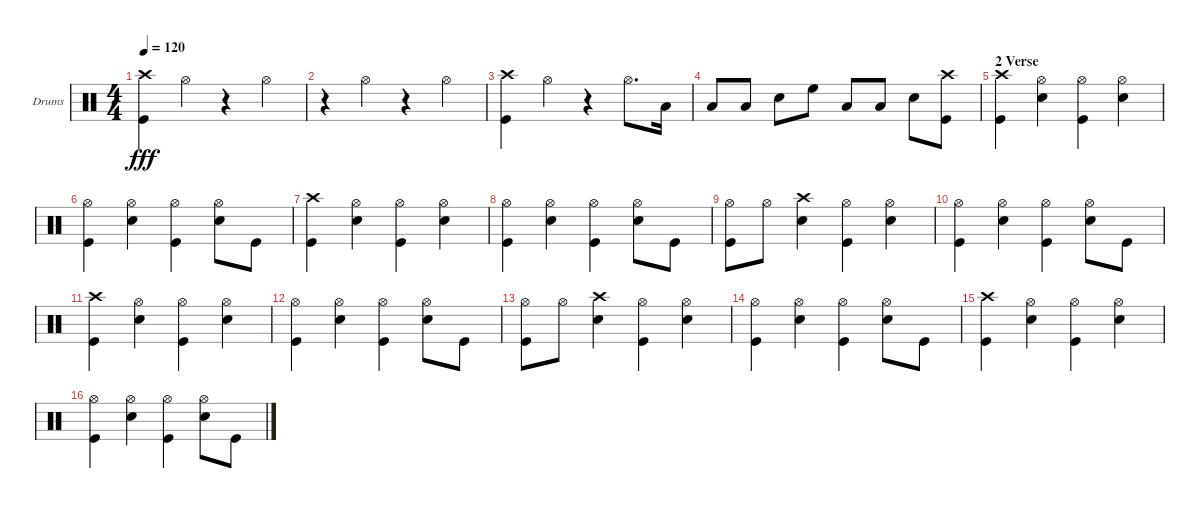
\bracketExtendMode groupsimilarinstruments
\firstSystemTrackNameOrientation horizontal
\otherSystemsTrackNameOrientation horizontal
\track ("Drumkit" "Drums") {instrument percussion}
\staff {score}
\articulation defaults
\ts (4 4)
\tempo 120
\clef neutral
\ks c
("Kick (hit)" "Crash high (hit)").4{dy fff} "Hi-Hat (open)".4 r.4 "Hi-Hat (open)".4 |
r.4 "Hi-Hat (open)".4 r.4 "Hi-Hat (open)".4 |
("Crash high (hit)" "Kick (hit)").4 "Hi-Hat (open)".4 r.4 "Hi-Hat (open)".8{d} "Low Tom (hit)".16 |
"Low Tom (hit)".8 "Low Tom (hit)".8 "Snare (hit) 2".8 "High Floor Tom (hit)".8 "Low Tom (hit)".8 "Low Tom (hit)".8 "Snare (hit) 2".8 ("Crash high (hit)" "Kick (hit)").8 |
\section ("" "2 Verse")
("Kick (hit)" "Crash high (hit)").4 ("Hi-Hat (open)" "Snare (hit) 2").4 ("Kick (hit)" "Hi-Hat (open)").4 ("Hi-Hat (open)" "Snare (hit) 2").4 |
("Hi-Hat (open)" "Kick (hit)").4 ("Hi-Hat (open)" "Snare (hit) 2").4 ("Hi-Hat (open)" "Kick (hit)").4 ("Snare (hit) 2" "Hi-Hat (open)").8 "Kick (hit)".8 |
("Kick (hit)" "Crash high (hit)").4 ("Hi-Hat (open)" "Snare (hit) 2").4 ("Kick (hit)" "Hi-Hat (open)").4 ("Hi-Hat (open)" "Snare (hit) 2").4 |
("Hi-Hat (open)" "Kick (hit)").4 ("Hi-Hat (open)" "Snare (hit) 2").4 ("Hi-Hat (open)" "Kick (hit)").4 ("Snare (hit) 2" "Hi-Hat (open)").8 "Kick (hit)".8 |
("Kick (hit)" "Hi-Hat (open)").8 "Hi-Hat (open)".8 ("Crash high (hit)" "Snare (hit) 2").4 ("Hi-Hat (open)" "Kick (hit)").4 ("Snare (hit) 2" "Hi-Hat (open)").4 |
("Hi-Hat (open)" "Kick (hit)").4 ("Hi-Hat (open)" "Snare (hit) 2").4 ("Hi-Hat (open)" "Kick (hit)").4 ("Snare (hit) 2" "Hi-Hat (open)").8 "Kick (hit)".8 |
("Kick (hit)" "Crash high (hit)").4 ("Hi-Hat (open)" "Snare (hit) 2").4 ("Kick (hit)" "Hi-Hat (open)").4 ("Hi-Hat (open)" "Snare (hit) 2").4 |
("Hi-Hat (open)" "Kick (hit)").4 ("Hi-Hat (open)" "Snare (hit) 2").4 ("Hi-Hat (open)" "Kick (hit)").4 ("Snare (hit) 2" "Hi-Hat (open)").8 "Kick (hit)".8 |
("Kick (hit)" "Hi-Hat (open)").8 "Hi-Hat (open)".8 ("Crash high (hit)" "Snare (hit) 2").4 ("Hi-Hat (open)" "Kick (hit)").4 ("Snare (hit) 2" "Hi-Hat (open)").4 |
("Hi-Hat (open)" "Kick (hit)").4 ("Hi-Hat (open)" "Snare (hit) 2").4 ("Hi-Hat (open)" "Kick (hit)").4 ("Snare (hit) 2" "Hi-Hat (open)").8 "Kick (hit)".8 |
("Kick (hit)" "Crash high (hit)").4 ("Hi-Hat (open)" "Snare (hit) 2").4 ("Kick (hit)" "Hi-Hat (open)").4 ("Hi-Hat (open)" "Snare (hit) 2").4 |
("Hi-Hat (open)" "Kick (hit)").4 ("Hi-Hat (open)" "Snare (hit) 2").4 ("Hi-Hat (open)" "Kick (hit)").4 ("Snare (hit) 2" "Hi-Hat (open)").8 "Kick (hit)".8
